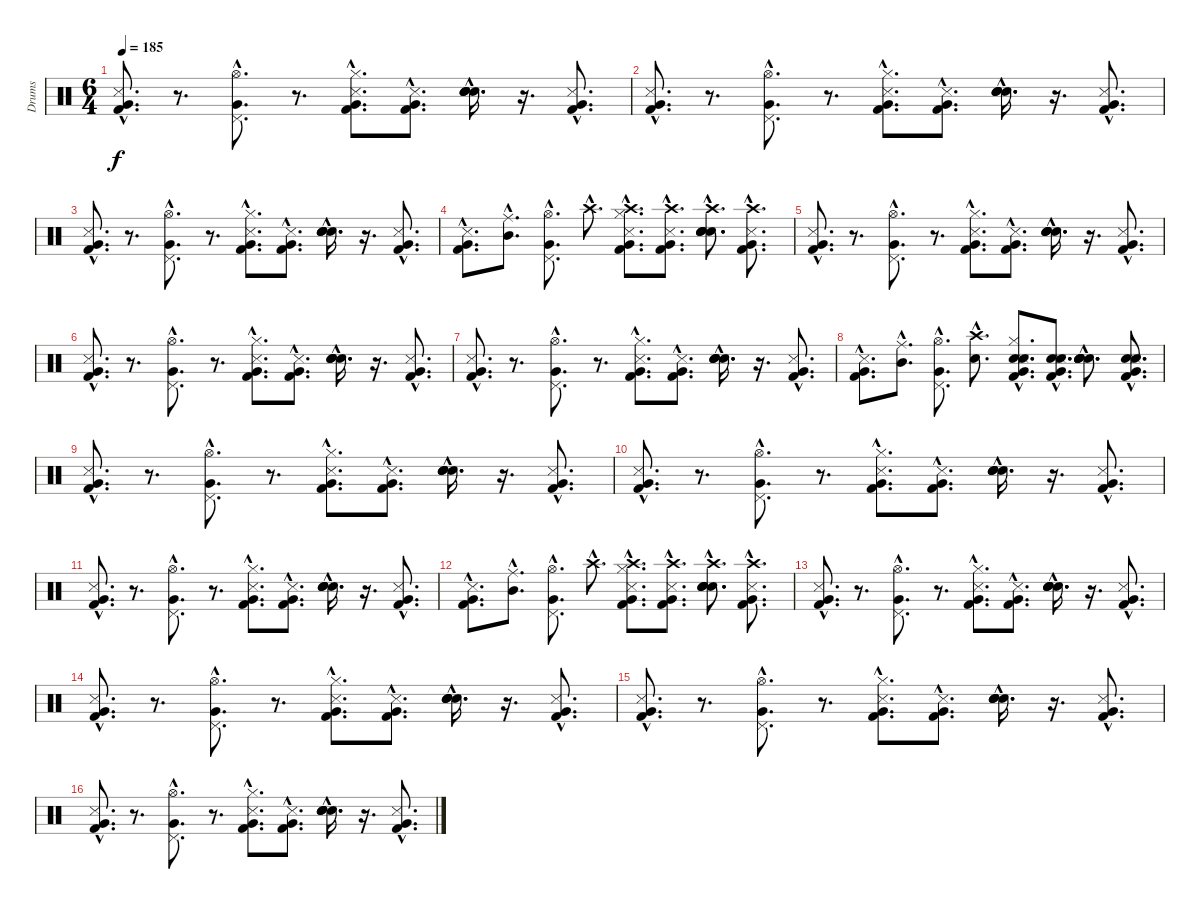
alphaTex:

\track ("Drums" "Drums") {instrument percussion}
\staff {score}
\articulation defaults
\ts (6 4)
\tempo 185
\clef neutral
\ks c
("Very Low Tom (hit)"{hac} "Metronome (hit)"{hac} "Kick (hit) 2"{hac}).8{d dy f} r.8{d} ("Very Low Tom (hit)"{hac} "Pedal Hi-Hat (hit)"{hac} "Hi-Hat (open)"{hac}).8{d} r.8{d} ("Hi-Hat (closed)"{hac} "Very Low Tom (hit)"{hac} "Metronome (hit)"{hac} "Kick (hit) 2"{hac}).8{d} ("Very Low Tom (hit)"{hac} "Metronome (hit)"{hac} "Kick (hit) 2"{hac}).8{d} ("Snare (hit) 2"{hac} "Snare (hit) 2"{hac} "Snare (hit) 2"{hac} "Snare (hit) 2"{hac}).16{d} r.16{d} ("Very Low Tom (hit)"{hac} "Metronome (hit)"{hac} "Kick (hit) 2"{hac}).8{d} |
("Very Low Tom (hit)"{hac} "Metronome (hit)"{hac} "Kick (hit) 2"{hac}).8{d} r.8{d} ("Very Low Tom (hit)"{hac} "Pedal Hi-Hat (hit)"{hac} "Hi-Hat (open)"{hac}).8{d} r.8{d} ("Hi-Hat (closed)"{hac} "Very Low Tom (hit)"{hac} "Metronome (hit)"{hac} "Kick (hit) 2"{hac}).8{d} ("Very Low Tom (hit)"{hac} "Metronome (hit)"{hac} "Kick (hit) 2"{hac}).8{d} ("Snare (hit) 2"{hac} "Snare (hit) 2"{hac} "Snare (hit) 2"{hac} "Snare (hit) 2"{hac}).16{d} r.16{d} ("Very Low Tom (hit)"{hac} "Metronome (hit)"{hac} "Kick (hit) 2"{hac}).8{d} |
("Very Low Tom (hit)"{hac} "Metronome (hit)"{hac} "Kick (hit) 2"{hac}).8{d} r.8{d} ("Very Low Tom (hit)"{hac} "Pedal Hi-Hat (hit)"{hac} "Hi-Hat (open)"{hac}).8{d} r.8{d} ("Hi-Hat (closed)"{hac} "Very Low Tom (hit)"{hac} "Metronome (hit)"{hac} "Kick (hit) 2"{hac}).8{d} ("Very Low Tom (hit)"{hac} "Metronome (hit)"{hac} "Kick (hit) 2"{hac}).8{d} ("Snare (hit) 2"{hac} "Snare (hit) 2"{hac} "Snare (hit) 2"{hac} "Snare (hit) 2"{hac}).16{d} r.16{d} ("Very Low Tom (hit)"{hac} "Metronome (hit)"{hac} "Kick (hit) 2"{hac}).8{d} |
("Very Low Tom (hit)"{hac} "Metronome (hit)"{hac} "Kick (hit) 2"{hac}).8{d} ("Mid Tom (hit)"{hac} "Ride (middle)"{hac}).8{d} ("Very Low Tom (hit)"{hac} "Pedal Hi-Hat (hit)"{hac} "Hi-Hat (open)"{hac}).8{d} "Crash high (hit)"{hac}.8{d} ("Crash high (hit)"{hac} "Hi-Hat (closed)"{hac} "Very Low Tom (hit)"{hac} "Metronome (hit)"{hac} "Kick (hit) 2"{hac}).8{d} ("Crash high (hit)"{hac} "Very Low Tom (hit)"{hac} "Metronome (hit)"{hac} "Kick (hit) 2"{hac}).8{d} ("Snare (hit) 2"{hac} "Crash high (hit)"{hac} "Snare (hit) 2"{hac} "Snare (hit) 2"{hac} "Snare (hit) 2"{hac}).8{d} ("Crash high (hit)"{hac} "Very Low Tom (hit)"{hac} "Metronome (hit)"{hac} "Kick (hit) 2"{hac}).8{d} |
("Very Low Tom (hit)"{hac} "Metronome (hit)"{hac} "Kick (hit) 2"{hac}).8{d} r.8{d} ("Very Low Tom (hit)"{hac} "Pedal Hi-Hat (hit)"{hac} "Hi-Hat (open)"{hac}).8{d} r.8{d} ("Hi-Hat (closed)"{hac} "Very Low Tom (hit)"{hac} "Metronome (hit)"{hac} "Kick (hit) 2"{hac}).8{d} ("Very Low Tom (hit)"{hac} "Metronome (hit)"{hac} "Kick (hit) 2"{hac}).8{d} ("Snare (hit) 2"{hac} "Snare (hit) 2"{hac} "Snare (hit) 2"{hac} "Snare (hit) 2"{hac}).16{d} r.16{d} ("Very Low Tom (hit)"{hac} "Metronome (hit)"{hac} "Kick (hit) 2"{hac}).8{d} |
("Very Low Tom (hit)"{hac} "Metronome (hit)"{hac} "Kick (hit) 2"{hac}).8{d} r.8{d} ("Very Low Tom (hit)"{hac} "Pedal Hi-Hat (hit)"{hac} "Hi-Hat (open)"{hac}).8{d} r.8{d} ("Hi-Hat (closed)"{hac} "Very Low Tom (hit)"{hac} "Metronome (hit)"{hac} "Kick (hit) 2"{hac}).8{d} ("Very Low Tom (hit)"{hac} "Metronome (hit)"{hac} "Kick (hit) 2"{hac}).8{d} ("Snare (hit) 2"{hac} "Snare (hit) 2"{hac} "Snare (hit) 2"{hac} "Snare (hit) 2"{hac}).16{d} r.16{d} ("Very Low Tom (hit)"{hac} "Metronome (hit)"{hac} "Kick (hit) 2"{hac}).8{d} |
("Very Low Tom (hit)"{hac} "Metronome (hit)"{hac} "Kick (hit) 2"{hac}).8{d} r.8{d} ("Very Low Tom (hit)"{hac} "Pedal Hi-Hat (hit)"{hac} "Hi-Hat (open)"{hac}).8{d} r.8{d} ("Hi-Hat (closed)"{hac} "Very Low Tom (hit)"{hac} "Metronome (hit)"{hac} "Kick (hit) 2"{hac}).8{d} ("Very Low Tom (hit)"{hac} "Metronome (hit)"{hac} "Kick (hit) 2"{hac}).8{d} ("Snare (hit) 2"{hac} "Snare (hit) 2"{hac} "Snare (hit) 2"{hac} "Snare (hit) 2"{hac}).16{d} r.16{d} ("Very Low Tom (hit)"{hac} "Metronome (hit)"{hac} "Kick (hit) 2"{hac}).8{d} |
("Very Low Tom (hit)"{hac} "Metronome (hit)"{hac} "Kick (hit) 2"{hac}).8{d} ("Mid Tom (hit)"{hac} "Ride (middle)"{hac}).8{d} ("Very Low Tom (hit)"{hac} "Pedal Hi-Hat (hit)"{hac} "Hi-Hat (open)"{hac}).8{d} ("Snare (hit) 2"{hac} "Crash high (hit)"{hac}).8{d} ("Snare (hit) 2"{hac} "Hi-Hat (closed)"{hac} "Very Low Tom (hit)"{hac} "Metronome (hit)"{hac} "Kick (hit) 2"{hac} "Electric Snare (hit)"{hac}).8{d} ("Snare (hit) 2"{hac} "Electric Snare (hit)"{hac} "Very Low Tom (hit)"{hac} "Metronome (hit)"{hac} "Kick (hit) 2"{hac}).8{d} ("Snare (hit) 2"{hac} "Electric Snare (hit)"{hac} "Snare (hit) 2"{hac} "Snare (hit) 2"{hac} "Snare (hit) 2"{hac}).8{d} ("Snare (hit) 2"{hac} "Snare (hit) 2"{hac} "Very Low Tom (hit)"{hac} "Metronome (hit)"{hac} "Kick (hit) 2"{hac}).8{d} |
("Very Low Tom (hit)"{hac} "Metronome (hit)"{hac} "Kick (hit) 2"{hac}).8{d} r.8{d} ("Very Low Tom (hit)"{hac} "Pedal Hi-Hat (hit)"{hac} "Hi-Hat (open)"{hac}).8{d} r.8{d} ("Hi-Hat (closed)"{hac} "Very Low Tom (hit)"{hac} "Metronome (hit)"{hac} "Kick (hit) 2"{hac}).8{d} ("Very Low Tom (hit)"{hac} "Metronome (hit)"{hac} "Kick (hit) 2"{hac}).8{d} ("Snare (hit) 2"{hac} "Snare (hit) 2"{hac} "Snare (hit) 2"{hac} "Snare (hit) 2"{hac}).16{d} r.16{d} ("Very Low Tom (hit)"{hac} "Metronome (hit)"{hac} "Kick (hit) 2"{hac}).8{d} |
("Very Low Tom (hit)"{hac} "Metronome (hit)"{hac} "Kick (hit) 2"{hac}).8{d} r.8{d} ("Very Low Tom (hit)"{hac} "Pedal Hi-Hat (hit)"{hac} "Hi-Hat (open)"{hac}).8{d} r.8{d} ("Hi-Hat (closed)"{hac} "Very Low Tom (hit)"{hac} "Metronome (hit)"{hac} "Kick (hit) 2"{hac}).8{d} ("Very Low Tom (hit)"{hac} "Metronome (hit)"{hac} "Kick (hit) 2"{hac}).8{d} ("Snare (hit) 2"{hac} "Snare (hit) 2"{hac} "Snare (hit) 2"{hac} "Snare (hit) 2"{hac}).16{d} r.16{d} ("Very Low Tom (hit)"{hac} "Metronome (hit)"{hac} "Kick (hit) 2"{hac}).8{d} |
("Very Low Tom (hit)"{hac} "Metronome (hit)"{hac} "Kick (hit) 2"{hac}).8{d} r.8{d} ("Very Low Tom (hit)"{hac} "Pedal Hi-Hat (hit)"{hac} "Hi-Hat (open)"{hac}).8{d} r.8{d} ("Hi-Hat (closed)"{hac} "Very Low Tom (hit)"{hac} "Metronome (hit)"{hac} "Kick (hit) 2"{hac}).8{d} ("Very Low Tom (hit)"{hac} "Metronome (hit)"{hac} "Kick (hit) 2"{hac}).8{d} ("Snare (hit) 2"{hac} "Snare (hit) 2"{hac} "Snare (hit) 2"{hac} "Snare (hit) 2"{hac}).16{d} r.16{d} ("Very Low Tom (hit)"{hac} "Metronome (hit)"{hac} "Kick (hit) 2"{hac}).8{d} |
("Very Low Tom (hit)"{hac} "Metronome (hit)"{hac} "Kick (hit) 2"{hac}).8{d} ("Mid Tom (hit)"{hac} "Ride (middle)"{hac}).8{d} ("Very Low Tom (hit)"{hac} "Pedal Hi-Hat (hit)"{hac} "Hi-Hat (open)"{hac}).8{d} "Crash high (hit)"{hac}.8{d} ("Crash high (hit)"{hac} "Hi-Hat (closed)"{hac} "Very Low Tom (hit)"{hac} "Metronome (hit)"{hac} "Kick (hit) 2"{hac}).8{d} ("Crash high (hit)"{hac} "Very Low Tom (hit)"{hac} "Metronome (hit)"{hac} "Kick (hit) 2"{hac}).8{d} ("Snare (hit) 2"{hac} "Crash high (hit)"{hac} "Snare (hit) 2"{hac} "Snare (hit) 2"{hac} "Snare (hit) 2"{hac}).8{d} ("Crash high (hit)"{hac} "Very Low Tom (hit)"{hac} "Metronome (hit)"{hac} "Kick (hit) 2"{hac}).8{d} |
("Very Low Tom (hit)"{hac} "Metronome (hit)"{hac} "Kick (hit) 2"{hac}).8{d} r.8{d} ("Very Low Tom (hit)"{hac} "Pedal Hi-Hat (hit)"{hac} "Hi-Hat (open)"{hac}).8{d} r.8{d} ("Hi-Hat (closed)"{hac} "Very Low Tom (hit)"{hac} "Metronome (hit)"{hac} "Kick (hit) 2"{hac}).8{d} ("Very Low Tom (hit)"{hac} "Metronome (hit)"{hac} "Kick (hit) 2"{hac}).8{d} ("Snare (hit) 2"{hac} "Snare (hit) 2"{hac} "Snare (hit) 2"{hac} "Snare (hit) 2"{hac}).16{d} r.16{d} ("Very Low Tom (hit)"{hac} "Metronome (hit)"{hac} "Kick (hit) 2"{hac}).8{d} |
("Very Low Tom (hit)"{hac} "Metronome (hit)"{hac} "Kick (hit) 2"{hac}).8{d} r.8{d} ("Very Low Tom (hit)"{hac} "Pedal Hi-Hat (hit)"{hac} "Hi-Hat (open)"{hac}).8{d} r.8{d} ("Hi-Hat (closed)"{hac} "Very Low Tom (hit)"{hac} "Metronome (hit)"{hac} "Kick (hit) 2"{hac}).8{d} ("Very Low Tom (hit)"{hac} "Metronome (hit)"{hac} "Kick (hit) 2"{hac}).8{d} ("Snare (hit) 2"{hac} "Snare (hit) 2"{hac} "Snare (hit) 2"{hac} "Snare (hit) 2"{hac}).16{d} r.16{d} ("Very Low Tom (hit)"{hac} "Metronome (hit)"{hac} "Kick (hit) 2"{hac}).8{d} |
("Very Low Tom (hit)"{hac} "Metronome (hit)"{hac} "Kick (hit) 2"{hac}).8{d} r.8{d} ("Very Low Tom (hit)"{hac} "Pedal Hi-Hat (hit)"{hac} "Hi-Hat (open)"{hac}).8{d} r.8{d} ("Hi-Hat (closed)"{hac} "Very Low Tom (hit)"{hac} "Metronome (hit)"{hac} "Kick (hit) 2"{hac}).8{d} ("Very Low Tom (hit)"{hac} "Metronome (hit)"{hac} "Kick (hit) 2"{hac}).8{d} ("Snare (hit) 2"{hac} "Snare (hit) 2"{hac} "Snare (hit) 2"{hac} "Snare (hit) 2"{hac}).16{d} r.16{d} ("Very Low Tom (hit)"{hac} "Metronome (hit)"{hac} "Kick (hit) 2"{hac}).8{d} |
("Very Low Tom (hit)"{hac} "Metronome (hit)"{hac} "Kick (hit) 2"{hac}).8{d} r.8{d} ("Very Low Tom (hit)"{hac} "Pedal Hi-Hat (hit)"{hac} "Hi-Hat (open)"{hac}).8{d} r.8{d} ("Hi-Hat (closed)"{hac} "Very Low Tom (hit)"{hac} "Metronome (hit)"{hac} "Kick (hit) 2"{hac}).8{d} ("Very Low Tom (hit)"{hac} "Metronome (hit)"{hac} "Kick (hit) 2"{hac}).8{d} ("Snare (hit) 2"{hac} "Snare (hit) 2"{hac} "Snare (hit) 2"{hac} "Snare (hit) 2"{hac}).16{d} r.16{d} ("Very Low Tom (hit)"{hac} "Metronome (hit)"{hac} "Kick (hit) 2"{hac}).8{d}
